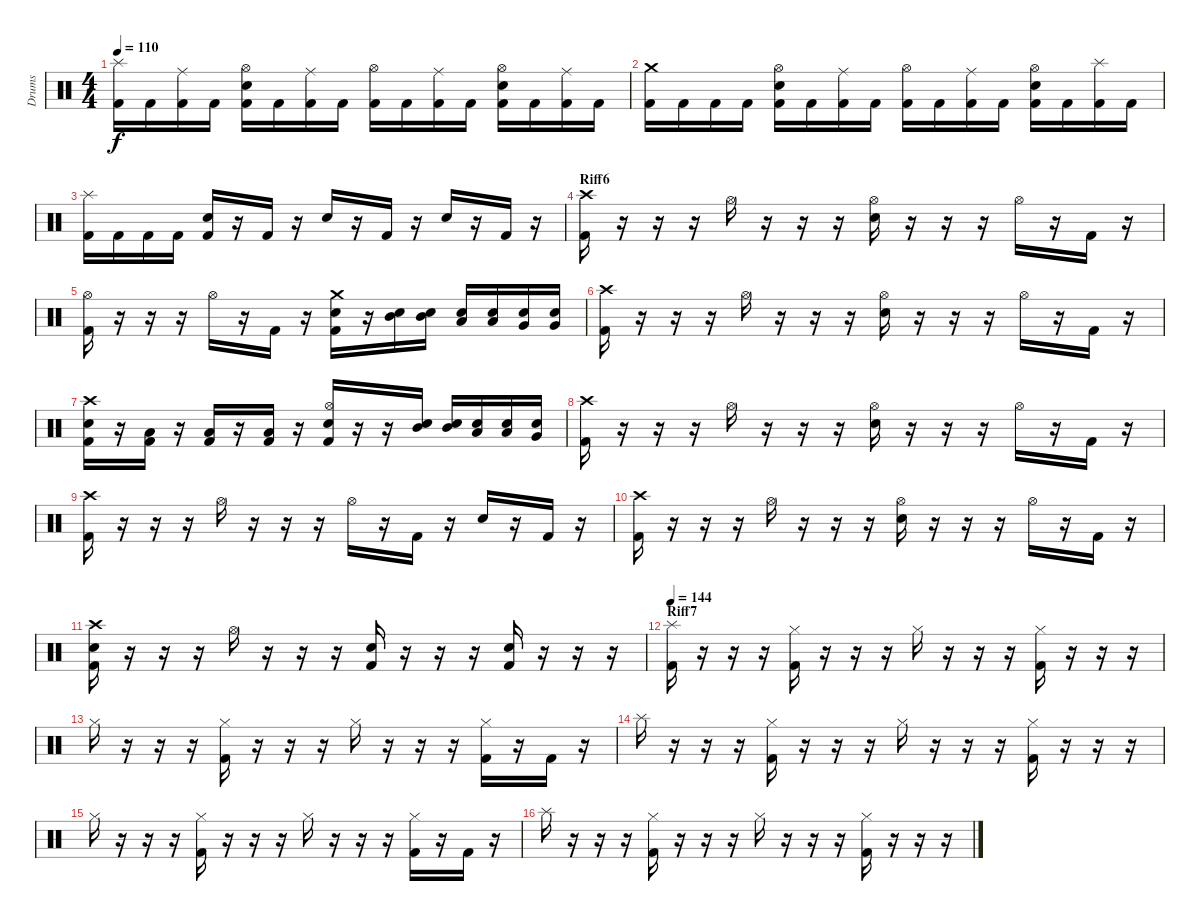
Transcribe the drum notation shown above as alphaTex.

\track ("Drums" "Drums") {instrument percussion}
\staff {score}
\articulation defaults
\ts (4 4)
\tempo 110
\clef neutral
\ks c
("Splash (hit)" "Kick (hit) 2").16{dy f} "Kick (hit) 2".16 ("Ride (middle)" "Kick (hit) 2").16 "Kick (hit) 2".16 ("Hi-Hat (open)" "Snare (hit) 2" "Kick (hit) 2").16 "Kick (hit) 2".16 ("Ride (middle)" "Kick (hit) 2").16 "Kick (hit) 2".16 ("Hi-Hat (open)" "Kick (hit) 2").16 "Kick (hit) 2".16 ("Ride (middle)" "Kick (hit) 2").16 "Kick (hit) 2".16 ("Hi-Hat (open)" "Snare (hit) 2" "Kick (hit) 2").16 "Kick (hit) 2".16 ("Ride (middle)" "Kick (hit) 2").16 "Kick (hit) 2".16 |
("Crash medium (hit)" "Kick (hit) 2").16 "Kick (hit) 2".16 "Kick (hit) 2".16 "Kick (hit) 2".16 ("Hi-Hat (open)" "Snare (hit) 2" "Kick (hit) 2").16 "Kick (hit) 2".16 ("Ride (middle)" "Kick (hit) 2").16 "Kick (hit) 2".16 ("Hi-Hat (open)" "Kick (hit) 2").16 "Kick (hit) 2".16 ("Ride (middle)" "Kick (hit) 2").16 "Kick (hit) 2".16 ("Hi-Hat (open)" "Snare (hit) 2" "Kick (hit) 2").16 "Kick (hit) 2".16 ("Splash (hit)" "Kick (hit) 2").16 "Kick (hit) 2".16 |
("Splash (hit)" "Kick (hit) 2").16 "Kick (hit) 2".16 "Kick (hit) 2".16 "Kick (hit) 2".16 ("Snare (hit) 2" "Kick (hit) 2").16 r.16 "Kick (hit) 2".16 r.16 "Snare (hit) 2".16 r.16 "Kick (hit) 2".16 r.16 "Snare (hit) 2".16 r.16 "Kick (hit) 2".16 r.16 |
\section ("" "Riff6")
("Crash high (hit)" "Kick (hit) 2").16 r.16 r.16 r.16 "Hi-Hat (open)".16 r.16 r.16 r.16 ("Hi-Hat (open)" "Snare (hit) 2").16 r.16 r.16 r.16 "Hi-Hat (open)".16 r.16 "Kick (hit) 2".16 r.16 |
("Hi-Hat (open)" "Kick (hit) 2").16 r.16 r.16 r.16 "Hi-Hat (open)".16 r.16 "Kick (hit) 2".16 r.16 ("Crash medium (hit)" "Snare (hit) 2" "Kick (hit) 2").16 r.16 ("Snare (hit) 2" "Mid Tom (hit)").16 ("Snare (hit) 2" "Mid Tom (hit)").16 ("Snare (hit) 2" "Low Tom (hit)").16 ("Snare (hit) 2" "Low Tom (hit)").16 ("Snare (hit) 2" "Very Low Tom (hit)").16 ("Snare (hit) 2" "Very Low Tom (hit)").16 |
("Crash high (hit)" "Kick (hit) 2").16 r.16 r.16 r.16 "Hi-Hat (open)".16 r.16 r.16 r.16 ("Hi-Hat (open)" "Snare (hit) 2").16 r.16 r.16 r.16 "Hi-Hat (open)".16 r.16 "Kick (hit) 2".16 r.16 |
("Snare (hit) 2" "Crash high (hit)" "Kick (hit) 2").16 r.16 ("Low Floor Tom (hit)" "Kick (hit) 2").16 r.16 ("Low Floor Tom (hit)" "Kick (hit) 2").16 r.16 ("Low Floor Tom (hit)" "Kick (hit) 2").16 r.16 ("Hi-Hat (open)" "Snare (hit) 2" "Kick (hit) 2").16 r.16 r.16 ("Snare (hit) 2" "Mid Tom (hit)").16 ("Snare (hit) 2" "Mid Tom (hit)").16 ("Snare (hit) 2" "Low Tom (hit)").16 ("Snare (hit) 2" "Low Tom (hit)").16 ("Snare (hit) 2" "Very Low Tom (hit)").16 |
("Crash high (hit)" "Kick (hit) 2").16 r.16 r.16 r.16 "Hi-Hat (open)".16 r.16 r.16 r.16 ("Hi-Hat (open)" "Snare (hit) 2").16 r.16 r.16 r.16 "Hi-Hat (open)".16 r.16 "Kick (hit) 2".16 r.16 |
("Crash high (hit)" "Kick (hit) 2").16 r.16 r.16 r.16 "Hi-Hat (open)".16 r.16 r.16 r.16 "Hi-Hat (open)".16 r.16 "Kick (hit) 2".16 r.16 "Snare (hit) 2".16 r.16 "Kick (hit) 2".16 r.16 |
("Crash high (hit)" "Kick (hit) 2").16 r.16 r.16 r.16 "Hi-Hat (open)".16 r.16 r.16 r.16 ("Hi-Hat (open)" "Snare (hit) 2").16 r.16 r.16 r.16 "Hi-Hat (open)".16 r.16 "Kick (hit) 2".16 r.16 |
("Snare (hit) 2" "Crash high (hit)" "Kick (hit) 2").16 r.16 r.16 r.16 "Hi-Hat (open)".16 r.16 r.16 r.16 ("Snare (hit) 2" "Kick (hit) 2").16 r.16 r.16 r.16 ("Snare (hit) 2" "Kick (hit) 2").16 r.16 r.16 r.16 |
\section ("" "Riff7")
\tempo 144
("Splash (hit)" "Kick (hit) 2").16 r.16 r.16 r.16 ("Hi-Hat (closed)" "Kick (hit) 2").16 r.16 r.16 r.16 "Hi-Hat (closed)".16 r.16 r.16 r.16 ("Hi-Hat (closed)" "Kick (hit) 2").16 r.16 r.16 r.16 |
"Hi-Hat (closed)".16 r.16 r.16 r.16 ("Hi-Hat (closed)" "Kick (hit) 2").16 r.16 r.16 r.16 "Hi-Hat (closed)".16 r.16 r.16 r.16 ("Hi-Hat (closed)" "Kick (hit) 2").16 r.16 "Kick (hit) 2".16 r.16 |
"Splash (hit)".16 r.16 r.16 r.16 ("Hi-Hat (closed)" "Kick (hit) 2").16 r.16 r.16 r.16 "Hi-Hat (closed)".16 r.16 r.16 r.16 ("Hi-Hat (closed)" "Kick (hit) 2").16 r.16 r.16 r.16 |
"Hi-Hat (closed)".16 r.16 r.16 r.16 ("Hi-Hat (closed)" "Kick (hit) 2").16 r.16 r.16 r.16 "Hi-Hat (closed)".16 r.16 r.16 r.16 ("Hi-Hat (closed)" "Kick (hit) 2").16 r.16 "Kick (hit) 2".16 r.16 |
"Splash (hit)".16 r.16 r.16 r.16 ("Hi-Hat (closed)" "Kick (hit) 2").16 r.16 r.16 r.16 "Hi-Hat (closed)".16 r.16 r.16 r.16 ("Hi-Hat (closed)" "Kick (hit) 2").16 r.16 r.16 r.16
